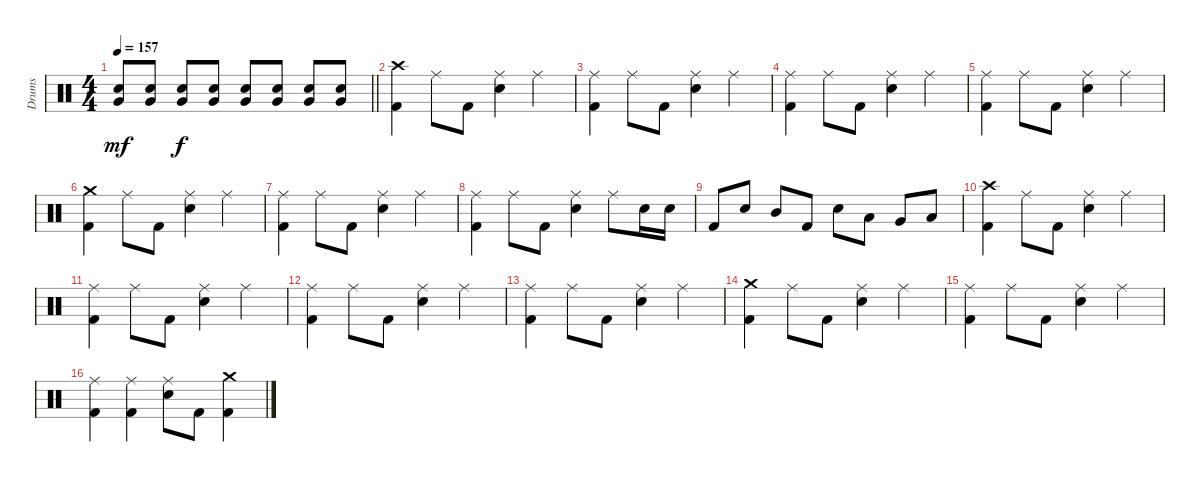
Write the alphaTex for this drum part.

\track ("Drums" "Drums") {instrument percussion}
\staff {score}
\articulation defaults
\ts (4 4)
\tempo 157
\clef neutral
\barLineRight lightlight
\ks c
("Electric Snare (hit)" "Very Low Tom (hit)").8{dy mf} ("Electric Snare (hit)" "Very Low Tom (hit)").8 ("Electric Snare (hit)" "Very Low Tom (hit)").8{dy f} ("Electric Snare (hit)" "Very Low Tom (hit)").8 ("Electric Snare (hit)" "Very Low Tom (hit)").8 ("Electric Snare (hit)" "Very Low Tom (hit)").8 ("Electric Snare (hit)" "Very Low Tom (hit)").8 ("Electric Snare (hit)" "Very Low Tom (hit)").8 |
\section ("" "")
("Crash high (hit)" "Kick (hit) 2").4 "Ride (middle)".8 "Kick (hit) 2".8 ("Ride (middle)" "Electric Snare (hit)").4 "Ride (middle)".4 |
("Ride (middle)" "Kick (hit) 2").4 "Ride (middle)".8 "Kick (hit) 2".8 ("Ride (middle)" "Electric Snare (hit)").4 "Ride (middle)".4 |
("Ride (middle)" "Kick (hit) 2").4 "Ride (middle)".8 "Kick (hit) 2".8 ("Ride (middle)" "Electric Snare (hit)").4 "Ride (middle)".4 |
("Ride (middle)" "Kick (hit) 2").4 "Ride (middle)".8 "Kick (hit) 2".8 ("Ride (middle)" "Electric Snare (hit)").4 "Ride (middle)".4 |
("Crash medium (hit)" "Kick (hit) 2").4 "Ride (middle)".8 "Kick (hit) 2".8 ("Ride (middle)" "Electric Snare (hit)").4 "Ride (middle)".4 |
("Ride (middle)" "Kick (hit) 2").4 "Ride (middle)".8 "Kick (hit) 2".8 ("Ride (middle)" "Electric Snare (hit)").4 "Ride (middle)".4 |
("Ride (middle)" "Kick (hit) 2").4 "Ride (middle)".8 "Kick (hit) 2".8 ("Ride (middle)" "Electric Snare (hit)").4 "Ride (middle)".8 "Electric Snare (hit)".16 "Electric Snare (hit)".16 |
"Kick (hit) 2".8 "Electric Snare (hit)".8 "Mid Tom (hit)".8 "Kick (hit) 2".8 "Electric Snare (hit)".8 "Low Tom (hit)".8 "Very Low Tom (hit)".8 "Low Floor Tom (hit)".8 |
("Crash high (hit)" "Kick (hit) 2").4 "Ride (middle)".8 "Kick (hit) 2".8 ("Ride (middle)" "Electric Snare (hit)").4 "Ride (middle)".4 |
("Ride (middle)" "Kick (hit) 2").4 "Ride (middle)".8 "Kick (hit) 2".8 ("Ride (middle)" "Electric Snare (hit)").4 "Ride (middle)".4 |
("Ride (middle)" "Kick (hit) 2").4 "Ride (middle)".8 "Kick (hit) 2".8 ("Ride (middle)" "Electric Snare (hit)").4 "Ride (middle)".4 |
("Ride (middle)" "Kick (hit) 2").4 "Ride (middle)".8 "Kick (hit) 2".8 ("Ride (middle)" "Electric Snare (hit)").4 "Ride (middle)".4 |
("Crash medium (hit)" "Kick (hit) 2").4 "Ride (middle)".8 "Kick (hit) 2".8 ("Ride (middle)" "Electric Snare (hit)").4 "Ride (middle)".4 |
("Ride (middle)" "Kick (hit) 2").4 "Ride (middle)".8 "Kick (hit) 2".8 ("Ride (middle)" "Electric Snare (hit)").4 "Ride (middle)".4 |
("Ride (middle)" "Kick (hit) 2").4 ("Ride (middle)" "Kick (hit) 2").4 ("Ride (middle)" "Electric Snare (hit)").8 "Kick (hit) 2".8 ("Crash medium (hit)" "Kick (hit) 2").4
